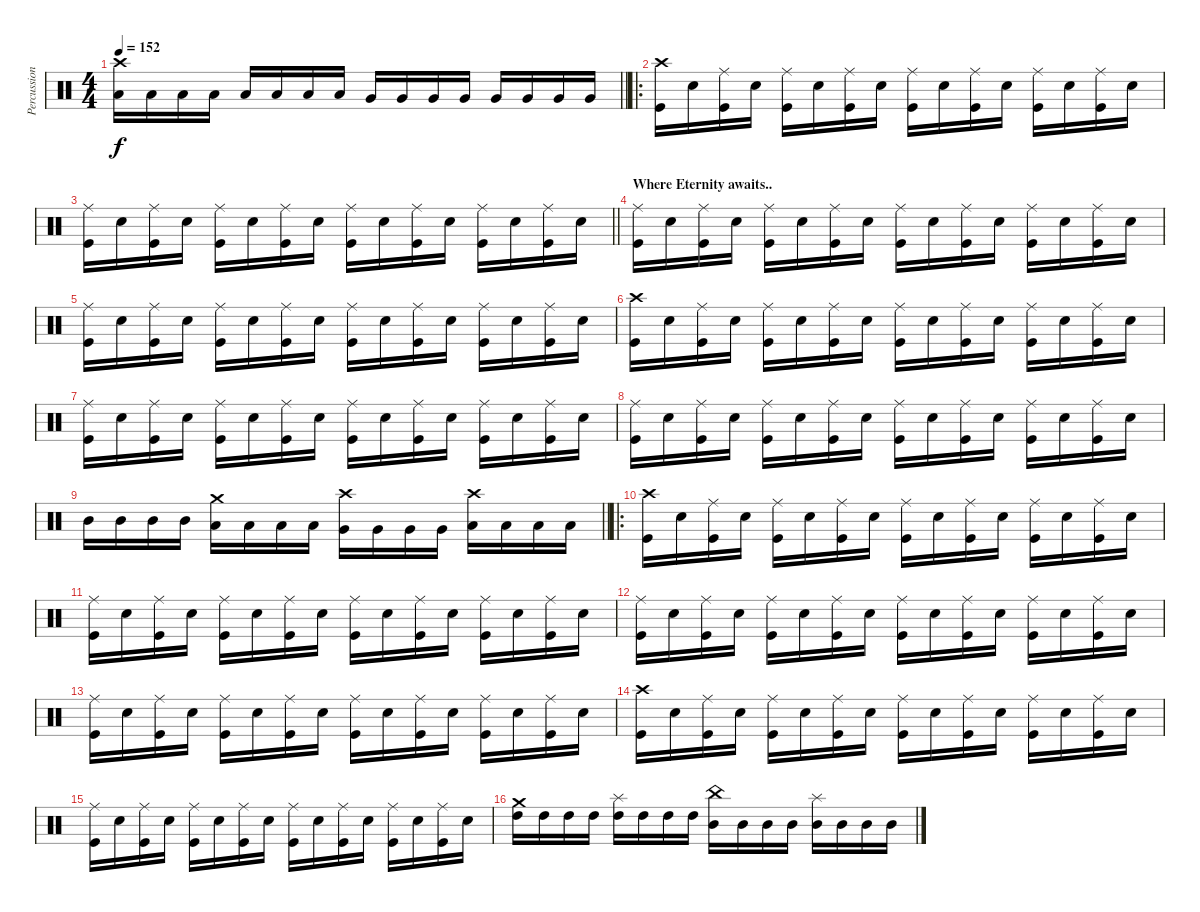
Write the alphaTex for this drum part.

\track ("Percussion" "Percussion") {instrument percussion}
\staff {score}
\articulation defaults
\ts (4 4)
\tempo 152
\clef neutral
\barLineRight lightlight
\ks c
("Crash high (hit)" "Low Tom (hit)").16{dy f} "Low Tom (hit)".16 "Low Tom (hit)".16 "Low Tom (hit)".16 "Low Tom (hit)".16 "Low Tom (hit)".16 "Low Tom (hit)".16 "Low Tom (hit)".16 "Very Low Tom (hit)".16 "Very Low Tom (hit)".16 "Very Low Tom (hit)".16 "Very Low Tom (hit)".16 "Very Low Tom (hit)".16 "Very Low Tom (hit)".16 "Very Low Tom (hit)".16 "Very Low Tom (hit)".16 |
\ro
("Crash high (hit)" "Kick (hit)").16 "Snare (hit) 2".16 ("Ride (middle)" "Kick (hit)").16 "Snare (hit) 2".16 ("Ride (middle)" "Kick (hit)").16 "Snare (hit) 2".16 ("Ride (middle)" "Kick (hit)").16 "Snare (hit) 2".16 ("Ride (middle)" "Kick (hit)").16 "Snare (hit) 2".16 ("Ride (middle)" "Kick (hit)").16 "Snare (hit) 2".16 ("Ride (middle)" "Kick (hit)").16 "Snare (hit) 2".16 ("Ride (middle)" "Kick (hit)").16 "Snare (hit) 2".16 |
\barLineRight lightlight
("Ride (middle)" "Kick (hit)").16 "Snare (hit) 2".16 ("Ride (middle)" "Kick (hit)").16 "Snare (hit) 2".16 ("Ride (middle)" "Kick (hit)").16 "Snare (hit) 2".16 ("Ride (middle)" "Kick (hit)").16 "Snare (hit) 2".16 ("Ride (middle)" "Kick (hit)").16 "Snare (hit) 2".16 ("Ride (middle)" "Kick (hit)").16 "Snare (hit) 2".16 ("Ride (middle)" "Kick (hit)").16 "Snare (hit) 2".16 ("Ride (middle)" "Kick (hit)").16 "Snare (hit) 2".16 |
\section ("" "Where Eternity awaits..")
("Ride (middle)" "Kick (hit)").16 "Snare (hit) 2".16 ("Ride (middle)" "Kick (hit)").16 "Snare (hit) 2".16 ("Ride (middle)" "Kick (hit)").16 "Snare (hit) 2".16 ("Ride (middle)" "Kick (hit)").16 "Snare (hit) 2".16 ("Ride (middle)" "Kick (hit)").16 "Snare (hit) 2".16 ("Ride (middle)" "Kick (hit)").16 "Snare (hit) 2".16 ("Ride (middle)" "Kick (hit)").16 "Snare (hit) 2".16 ("Ride (middle)" "Kick (hit)").16 "Snare (hit) 2".16 |
("Ride (middle)" "Kick (hit)").16 "Snare (hit) 2".16 ("Ride (middle)" "Kick (hit)").16 "Snare (hit) 2".16 ("Ride (middle)" "Kick (hit)").16 "Snare (hit) 2".16 ("Ride (middle)" "Kick (hit)").16 "Snare (hit) 2".16 ("Ride (middle)" "Kick (hit)").16 "Snare (hit) 2".16 ("Ride (middle)" "Kick (hit)").16 "Snare (hit) 2".16 ("Ride (middle)" "Kick (hit)").16 "Snare (hit) 2".16 ("Ride (middle)" "Kick (hit)").16 "Snare (hit) 2".16 |
("Crash high (hit)" "Kick (hit)").16 "Snare (hit) 2".16 ("Ride (middle)" "Kick (hit)").16 "Snare (hit) 2".16 ("Ride (middle)" "Kick (hit)").16 "Snare (hit) 2".16 ("Ride (middle)" "Kick (hit)").16 "Snare (hit) 2".16 ("Ride (middle)" "Kick (hit)").16 "Snare (hit) 2".16 ("Ride (middle)" "Kick (hit)").16 "Snare (hit) 2".16 ("Ride (middle)" "Kick (hit)").16 "Snare (hit) 2".16 ("Ride (middle)" "Kick (hit)").16 "Snare (hit) 2".16 |
("Ride (middle)" "Kick (hit)").16 "Snare (hit) 2".16 ("Ride (middle)" "Kick (hit)").16 "Snare (hit) 2".16 ("Ride (middle)" "Kick (hit)").16 "Snare (hit) 2".16 ("Ride (middle)" "Kick (hit)").16 "Snare (hit) 2".16 ("Ride (middle)" "Kick (hit)").16 "Snare (hit) 2".16 ("Ride (middle)" "Kick (hit)").16 "Snare (hit) 2".16 ("Ride (middle)" "Kick (hit)").16 "Snare (hit) 2".16 ("Ride (middle)" "Kick (hit)").16 "Snare (hit) 2".16 |
("Ride (middle)" "Kick (hit)").16 "Snare (hit) 2".16 ("Ride (middle)" "Kick (hit)").16 "Snare (hit) 2".16 ("Ride (middle)" "Kick (hit)").16 "Snare (hit) 2".16 ("Ride (middle)" "Kick (hit)").16 "Snare (hit) 2".16 ("Ride (middle)" "Kick (hit)").16 "Snare (hit) 2".16 ("Ride (middle)" "Kick (hit)").16 "Snare (hit) 2".16 ("Ride (middle)" "Kick (hit)").16 "Snare (hit) 2".16 ("Ride (middle)" "Kick (hit)").16 "Snare (hit) 2".16 |
\barLineRight lightlight "Mid Tom (hit)".16 "Mid Tom (hit)".16 "Mid Tom (hit)".16 "Mid Tom (hit)".16
("Crash medium (hit)" "Low Tom (hit)").16 "Low Tom (hit)".16 "Low Tom (hit)".16 "Low Tom (hit)".16 ("Crash high (hit)" "Very Low Tom (hit)").16 "Very Low Tom (hit)".16 "Very Low Tom (hit)".16 "Very Low Tom (hit)".16 ("Crash high (hit)" "Low Floor Tom (hit)").16 "Low Floor Tom (hit)".16 "Low Floor Tom (hit)".16 "Low Floor Tom (hit)".16 |
\ro
("Crash high (hit)" "Kick (hit)").16 "Snare (hit) 2".16 ("Ride (middle)" "Kick (hit)").16 "Snare (hit) 2".16 ("Ride (middle)" "Kick (hit)").16 "Snare (hit) 2".16 ("Ride (middle)" "Kick (hit)").16 "Snare (hit) 2".16 ("Ride (middle)" "Kick (hit)").16 "Snare (hit) 2".16 ("Ride (middle)" "Kick (hit)").16 "Snare (hit) 2".16 ("Ride (middle)" "Kick (hit)").16 "Snare (hit) 2".16 ("Ride (middle)" "Kick (hit)").16 "Snare (hit) 2".16 |
("Ride (middle)" "Kick (hit)").16 "Snare (hit) 2".16 ("Ride (middle)" "Kick (hit)").16 "Snare (hit) 2".16 ("Ride (middle)" "Kick (hit)").16 "Snare (hit) 2".16 ("Ride (middle)" "Kick (hit)").16 "Snare (hit) 2".16 ("Ride (middle)" "Kick (hit)").16 "Snare (hit) 2".16 ("Ride (middle)" "Kick (hit)").16 "Snare (hit) 2".16 ("Ride (middle)" "Kick (hit)").16 "Snare (hit) 2".16 ("Ride (middle)" "Kick (hit)").16 "Snare (hit) 2".16 |
("Ride (middle)" "Kick (hit)").16 "Snare (hit) 2".16 ("Ride (middle)" "Kick (hit)").16 "Snare (hit) 2".16 ("Ride (middle)" "Kick (hit)").16 "Snare (hit) 2".16 ("Ride (middle)" "Kick (hit)").16 "Snare (hit) 2".16 ("Ride (middle)" "Kick (hit)").16 "Snare (hit) 2".16 ("Ride (middle)" "Kick (hit)").16 "Snare (hit) 2".16 ("Ride (middle)" "Kick (hit)").16 "Snare (hit) 2".16 ("Ride (middle)" "Kick (hit)").16 "Snare (hit) 2".16 |
("Ride (middle)" "Kick (hit)").16 "Snare (hit) 2".16 ("Ride (middle)" "Kick (hit)").16 "Snare (hit) 2".16 ("Ride (middle)" "Kick (hit)").16 "Snare (hit) 2".16 ("Ride (middle)" "Kick (hit)").16 "Snare (hit) 2".16 ("Ride (middle)" "Kick (hit)").16 "Snare (hit) 2".16 ("Ride (middle)" "Kick (hit)").16 "Snare (hit) 2".16 ("Ride (middle)" "Kick (hit)").16 "Snare (hit) 2".16 ("Ride (middle)" "Kick (hit)").16 "Snare (hit) 2".16 |
("Crash high (hit)" "Kick (hit)").16 "Snare (hit) 2".16 ("Ride (middle)" "Kick (hit)").16 "Snare (hit) 2".16 ("Ride (middle)" "Kick (hit)").16 "Snare (hit) 2".16 ("Ride (middle)" "Kick (hit)").16 "Snare (hit) 2".16 ("Ride (middle)" "Kick (hit)").16 "Snare (hit) 2".16 ("Ride (middle)" "Kick (hit)").16 "Snare (hit) 2".16 ("Ride (middle)" "Kick (hit)").16 "Snare (hit) 2".16 ("Ride (middle)" "Kick (hit)").16 "Snare (hit) 2".16 |
("Ride (middle)" "Kick (hit)").16 "Snare (hit) 2".16 ("Ride (middle)" "Kick (hit)").16 "Snare (hit) 2".16 ("Ride (middle)" "Kick (hit)").16 "Snare (hit) 2".16 ("Ride (middle)" "Kick (hit)").16 "Snare (hit) 2".16 ("Ride (middle)" "Kick (hit)").16 "Snare (hit) 2".16 ("Ride (middle)" "Kick (hit)").16 "Snare (hit) 2".16 ("Ride (middle)" "Kick (hit)").16 "Snare (hit) 2".16 ("Ride (middle)" "Kick (hit)").16 "Snare (hit) 2".16 |
("Crash medium (hit)" "High Tom (hit)").16 "High Tom (hit)".16 "High Tom (hit)".16 "High Tom (hit)".16 ("Splash (hit)" "High Tom (hit)").16 "High Tom (hit)".16 "High Tom (hit)".16 "High Tom (hit)".16 ("China (hit)" "Mid Tom (hit)").16 "Mid Tom (hit)".16 "Mid Tom (hit)".16 "Mid Tom (hit)".16 ("Splash (hit)" "Mid Tom (hit)").16 "Mid Tom (hit)".16 "Mid Tom (hit)".16 "Mid Tom (hit)".16
